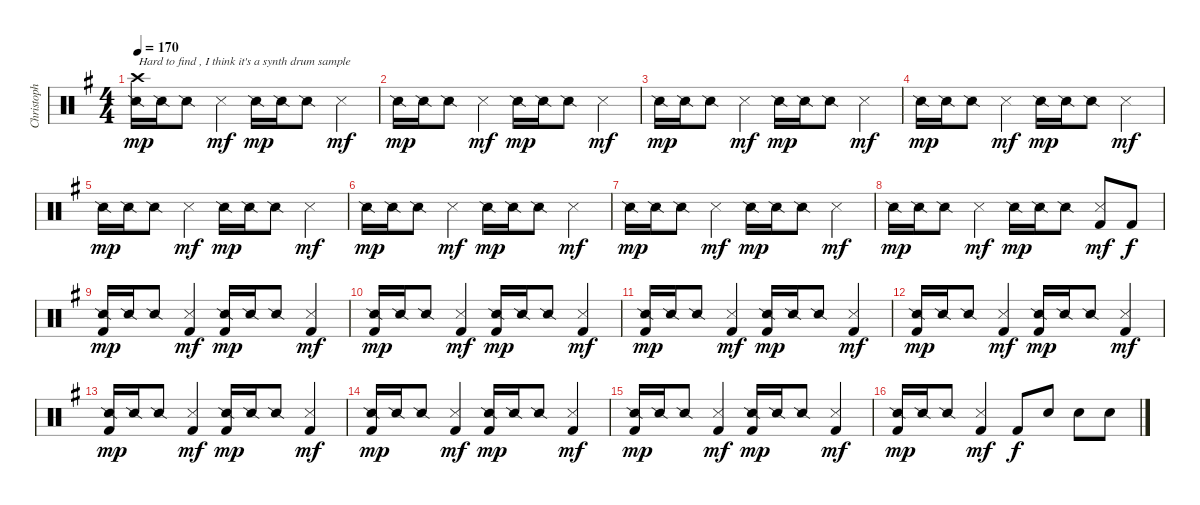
\track ("Christoph Doom Schneider - Drums" "Christoph ") {instrument percussion}
\staff {score}
\articulation defaults
\ts (4 4)
\tempo 170
\clef neutral
\ks g
("Crash high (hit)" "Snare (side stick) 2").16{txt "Hard to find , I think it's a synth drum sample" dy mp} "Snare (side stick) 2".16 "Snare (side stick) 2".8 "Snare (side stick) 3".4{dy mf} "Snare (side stick) 2".16{dy mp} "Snare (side stick) 2".16 "Snare (side stick) 2".8 "Snare (side stick) 3".4{dy mf} |
"Snare (side stick) 2".16{dy mp} "Snare (side stick) 2".16 "Snare (side stick) 2".8 "Snare (side stick) 3".4{dy mf} "Snare (side stick) 2".16{dy mp} "Snare (side stick) 2".16 "Snare (side stick) 2".8 "Snare (side stick) 3".4{dy mf} |
"Snare (side stick) 2".16{dy mp} "Snare (side stick) 2".16 "Snare (side stick) 2".8 "Snare (side stick) 3".4{dy mf} "Snare (side stick) 2".16{dy mp} "Snare (side stick) 2".16 "Snare (side stick) 2".8 "Snare (side stick) 3".4{dy mf} |
"Snare (side stick) 2".16{dy mp} "Snare (side stick) 2".16 "Snare (side stick) 2".8 "Snare (side stick) 3".4{dy mf} "Snare (side stick) 2".16{dy mp} "Snare (side stick) 2".16 "Snare (side stick) 2".8 "Snare (side stick) 3".4{dy mf} |
"Snare (side stick) 2".16{dy mp} "Snare (side stick) 2".16 "Snare (side stick) 2".8 "Snare (side stick) 3".4{dy mf} "Snare (side stick) 2".16{dy mp} "Snare (side stick) 2".16 "Snare (side stick) 2".8 "Snare (side stick) 3".4{dy mf} |
"Snare (side stick) 2".16{dy mp} "Snare (side stick) 2".16 "Snare (side stick) 2".8 "Snare (side stick) 3".4{dy mf} "Snare (side stick) 2".16{dy mp} "Snare (side stick) 2".16 "Snare (side stick) 2".8 "Snare (side stick) 3".4{dy mf} |
"Snare (side stick) 2".16{dy mp} "Snare (side stick) 2".16 "Snare (side stick) 2".8 "Snare (side stick) 3".4{dy mf} "Snare (side stick) 2".16{dy mp} "Snare (side stick) 2".16 "Snare (side stick) 2".8 "Snare (side stick) 3".4{dy mf} |
"Snare (side stick) 2".16{dy mp} "Snare (side stick) 2".16 "Snare (side stick) 2".8 "Snare (side stick) 3".4{dy mf} "Snare (side stick) 2".16{dy mp} "Snare (side stick) 2".16 "Snare (side stick) 2".8 ("Snare (side stick) 3" "Kick (hit) 2").8{dy mf} "Kick (hit) 2".8{dy f} |
("Snare (side stick) 2" "Kick (hit) 2").16{dy mp} "Snare (side stick) 2".16 "Snare (side stick) 2".8 ("Snare (side stick) 3" "Kick (hit) 2").4{dy mf} ("Snare (side stick) 2" "Kick (hit) 2").16{dy mp} "Snare (side stick) 2".16 "Snare (side stick) 2".8 ("Snare (side stick) 3" "Kick (hit) 2").4{dy mf} |
("Snare (side stick) 2" "Kick (hit) 2").16{dy mp} "Snare (side stick) 2".16 "Snare (side stick) 2".8 ("Snare (side stick) 3" "Kick (hit) 2").4{dy mf} ("Snare (side stick) 2" "Kick (hit) 2").16{dy mp} "Snare (side stick) 2".16 "Snare (side stick) 2".8 ("Snare (side stick) 3" "Kick (hit) 2").4{dy mf} |
("Snare (side stick) 2" "Kick (hit) 2").16{dy mp} "Snare (side stick) 2".16 "Snare (side stick) 2".8 ("Snare (side stick) 3" "Kick (hit) 2").4{dy mf} ("Snare (side stick) 2" "Kick (hit) 2").16{dy mp} "Snare (side stick) 2".16 "Snare (side stick) 2".8 ("Snare (side stick) 3" "Kick (hit) 2").4{dy mf} |
("Snare (side stick) 2" "Kick (hit) 2").16{dy mp} "Snare (side stick) 2".16 "Snare (side stick) 2".8 ("Snare (side stick) 3" "Kick (hit) 2").4{dy mf} ("Snare (side stick) 2" "Kick (hit) 2").16{dy mp} "Snare (side stick) 2".16 "Snare (side stick) 2".8 ("Snare (side stick) 3" "Kick (hit) 2").4{dy mf} |
("Snare (side stick) 2" "Kick (hit) 2").16{dy mp} "Snare (side stick) 2".16 "Snare (side stick) 2".8 ("Snare (side stick) 3" "Kick (hit) 2").4{dy mf} ("Snare (side stick) 2" "Kick (hit) 2").16{dy mp} "Snare (side stick) 2".16 "Snare (side stick) 2".8 ("Snare (side stick) 3" "Kick (hit) 2").4{dy mf} |
("Snare (side stick) 2" "Kick (hit) 2").16{dy mp} "Snare (side stick) 2".16 "Snare (side stick) 2".8 ("Snare (side stick) 3" "Kick (hit) 2").4{dy mf} ("Snare (side stick) 2" "Kick (hit) 2").16{dy mp} "Snare (side stick) 2".16 "Snare (side stick) 2".8 ("Snare (side stick) 3" "Kick (hit) 2").4{dy mf} |
("Snare (side stick) 2" "Kick (hit) 2").16{dy mp} "Snare (side stick) 2".16 "Snare (side stick) 2".8 ("Snare (side stick) 3" "Kick (hit) 2").4{dy mf} ("Snare (side stick) 2" "Kick (hit) 2").16{dy mp} "Snare (side stick) 2".16 "Snare (side stick) 2".8 ("Snare (side stick) 3" "Kick (hit) 2").4{dy mf} |
("Snare (side stick) 2" "Kick (hit) 2").16{dy mp} "Snare (side stick) 2".16 "Snare (side stick) 2".8 ("Snare (side stick) 3" "Kick (hit) 2").4{dy mf} "Kick (hit) 2".8{dy f} "Electric Snare (hit)".8 "Electric Snare (hit)".8 "Electric Snare (hit)".8
